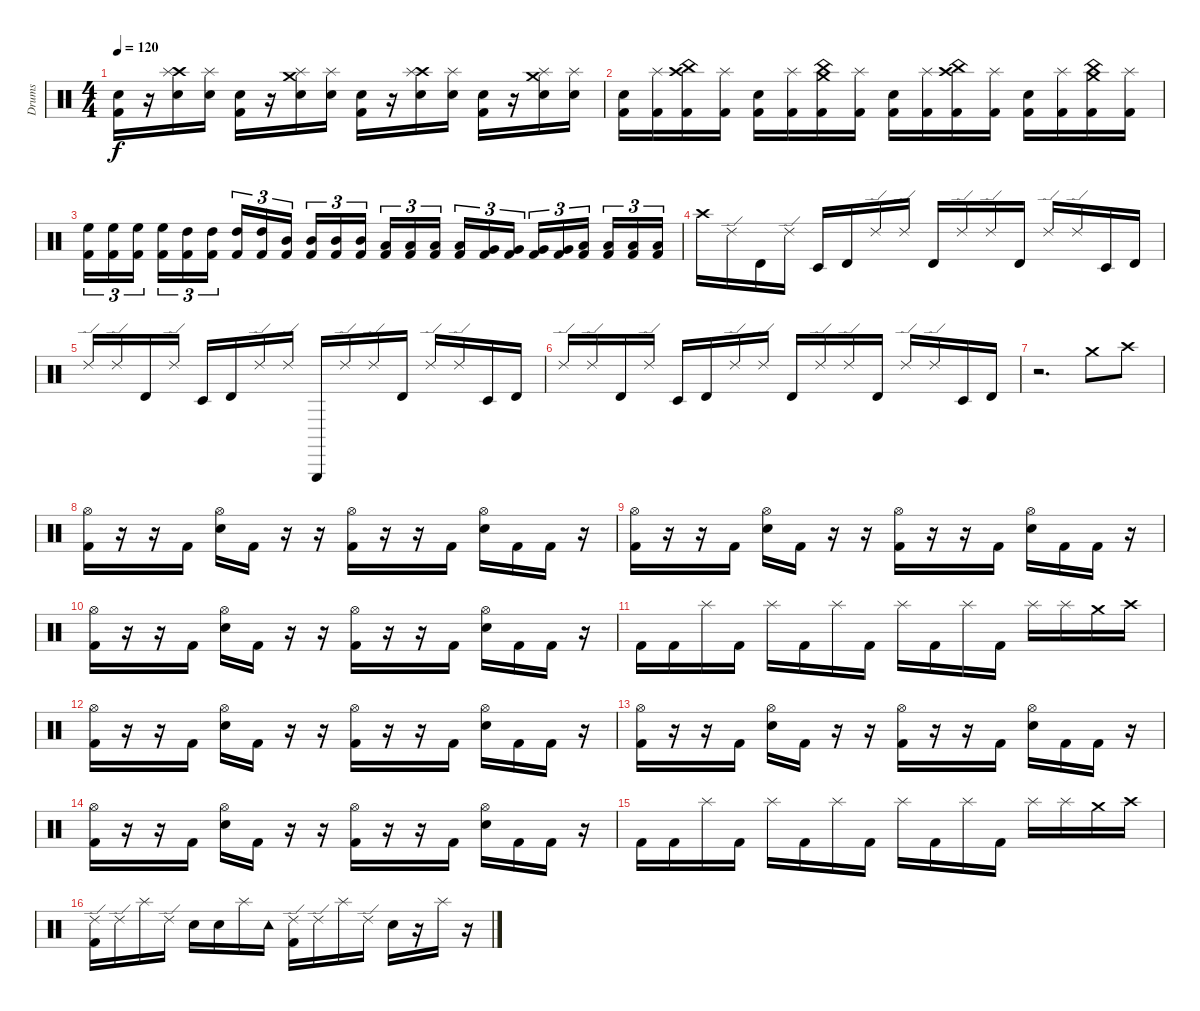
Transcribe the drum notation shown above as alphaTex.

\track ("Drums" "Drums") {instrument percussion}
\staff {score}
\articulation defaults
\ts (4 4)
\tempo 120
\clef neutral
\ks c
("Snare (hit) 2" "Kick (hit) 2").16{dy f} r.16 ("Crash high (hit)" "Splash (hit)" "Snare (hit) 2").16 ("Splash (hit)" "Snare (hit) 2").16 ("Snare (hit) 2" "Kick (hit) 2").16 r.16 ("Crash medium (hit)" "Splash (hit)" "Snare (hit) 2").16 ("Splash (hit)" "Snare (hit) 2").16 ("Snare (hit) 2" "Kick (hit) 2").16 r.16 ("Crash high (hit)" "Splash (hit)" "Snare (hit) 2").16 ("Splash (hit)" "Snare (hit) 2").16 ("Snare (hit) 2" "Kick (hit) 2").16 r.16 ("Crash medium (hit)" "Splash (hit)" "Snare (hit) 2").16 ("Splash (hit)" "Snare (hit) 2").16 |
("Snare (hit) 2" "Kick (hit) 2").16 ("Splash (hit)" "Kick (hit) 2").16 ("Crash high (hit)" "China (hit)" "Kick (hit) 2").16 ("Splash (hit)" "Kick (hit) 2").16 ("Snare (hit) 2" "Kick (hit) 2").16 ("Splash (hit)" "Kick (hit) 2").16 ("Crash medium (hit)" "China (hit)" "Kick (hit) 2").16 ("Splash (hit)" "Kick (hit) 2").16 ("Snare (hit) 2" "Kick (hit) 2").16 ("Splash (hit)" "Kick (hit) 2").16 ("Crash high (hit)" "China (hit)" "Kick (hit) 2").16 ("Splash (hit)" "Kick (hit) 2").16 ("Snare (hit) 2" "Kick (hit) 2").16 ("Splash (hit)" "Kick (hit) 2").16 ("Crash medium (hit)" "China (hit)" "Kick (hit) 2").16 ("Splash (hit)" "Kick (hit) 2").16 |
("High Floor Tom (hit)" "Kick (hit) 2").16{tu (3 2)} ("High Floor Tom (hit)" "Kick (hit) 2").16{tu (3 2)} ("High Floor Tom (hit)" "Kick (hit) 2").16{tu (3 2)} ("High Floor Tom (hit)" "Kick (hit) 2").16{tu (3 2)} ("High Tom (hit)" "Kick (hit) 2").16{tu (3 2)} ("High Tom (hit)" "Kick (hit) 2").16{tu (3 2)} ("High Tom (hit)" "Kick (hit) 2").16{tu (3 2)} ("High Tom (hit)" "Kick (hit) 2").16{tu (3 2)} ("Mid Tom (hit)" "Kick (hit) 2").16{tu (3 2)} ("Mid Tom (hit)" "Kick (hit) 2").16{tu (3 2)} ("Mid Tom (hit)" "Kick (hit) 2").16{tu (3 2)} ("Mid Tom (hit)" "Kick (hit) 2").16{tu (3 2)} ("Low Tom (hit)" "Kick (hit) 2").16{tu (3 2)} ("Low Tom (hit)" "Kick (hit) 2").16{tu (3 2)} ("Low Tom (hit)" "Kick (hit) 2").16{tu (3 2)} ("Low Tom (hit)" "Kick (hit) 2").16{tu (3 2)} ("Very Low Tom (hit)" "Kick (hit) 2").16{tu (3 2)} ("Very Low Tom (hit)" "Kick (hit) 2").16{tu (3 2)} ("Very Low Tom (hit)" "Kick (hit) 2").16{tu (3 2)} ("Very Low Tom (hit)" "Kick (hit) 2").16{tu (3 2)} ("Low Floor Tom (hit)" "Kick (hit) 2").16{tu (3 2)} ("Low Floor Tom (hit)" "Kick (hit) 2").16{tu (3 2)} ("Low Floor Tom (hit)" "Kick (hit) 2").16{tu (3 2)} ("Low Floor Tom (hit)" "Kick (hit) 2").16{tu (3 2)} |
"Crash high (hit)".16 "Ride (edge) 2".16 "Timbale high (hit)".16 "Ride (edge) 2".16 "Timbale low (hit)".16 "Timbale high (hit)".16 "Ride (edge) 2".16 "Ride (edge) 2".16 "Timbale high (hit)".16 "Ride (edge) 2".16 "Ride (edge) 2".16 "Timbale high (hit)".16 "Ride (edge) 2".16 "Ride (edge) 2".16 "Timbale low (hit)".16 "Timbale high (hit)".16 |
"Ride (edge) 2".16 "Ride (edge) 2".16 "Timbale high (hit)".16 "Ride (edge) 2".16 "Timbale low (hit)".16 "Timbale high (hit)".16 "Ride (edge) 2".16 "Ride (edge) 2".16 "Triangle (hit)".16 "Ride (edge) 2".16 "Ride (edge) 2".16 "Timbale high (hit)".16 "Ride (edge) 2".16 "Ride (edge) 2".16 "Timbale low (hit)".16 "Timbale high (hit)".16 |
"Ride (edge) 2".16 "Ride (edge) 2".16 "Timbale high (hit)".16 "Ride (edge) 2".16 "Timbale low (hit)".16 "Timbale high (hit)".16 "Ride (edge) 2".16 "Ride (edge) 2".16 "Timbale high (hit)".16 "Ride (edge) 2".16 "Ride (edge) 2".16 "Timbale high (hit)".16 "Ride (edge) 2".16 "Ride (edge) 2".16 "Timbale low (hit)".16 "Timbale high (hit)".16 |
r.2{d} "Crash medium (hit)".8 "Crash high (hit)".8 |
("Hi-Hat (open)" "Kick (hit) 2").16 r.16 r.16 "Kick (hit) 2".16 ("Hi-Hat (open)" "Snare (hit) 2").16 "Kick (hit) 2".16 r.16 r.16 ("Hi-Hat (open)" "Kick (hit) 2").16 r.16 r.16 "Kick (hit) 2".16 ("Hi-Hat (open)" "Snare (hit) 2").16 "Kick (hit) 2".16 "Kick (hit) 2".16 r.16 |
("Hi-Hat (open)" "Kick (hit) 2").16 r.16 r.16 "Kick (hit) 2".16 ("Hi-Hat (open)" "Snare (hit) 2").16 "Kick (hit) 2".16 r.16 r.16 ("Hi-Hat (open)" "Kick (hit) 2").16 r.16 r.16 "Kick (hit) 2".16 ("Hi-Hat (open)" "Snare (hit) 2").16 "Kick (hit) 2".16 "Kick (hit) 2".16 r.16 |
("Hi-Hat (open)" "Kick (hit) 2").16 r.16 r.16 "Kick (hit) 2".16 ("Hi-Hat (open)" "Snare (hit) 2").16 "Kick (hit) 2".16 r.16 r.16 ("Hi-Hat (open)" "Kick (hit) 2").16 r.16 r.16 "Kick (hit) 2".16 ("Hi-Hat (open)" "Snare (hit) 2").16 "Kick (hit) 2".16 "Kick (hit) 2".16 r.16 |
"Kick (hit) 2".16 "Kick (hit) 2".16 "Splash (hit)".16 "Kick (hit) 2".16 "Splash (hit)".16 "Kick (hit) 2".16 "Splash (hit)".16 "Kick (hit) 2".16 "Splash (hit)".16 "Kick (hit) 2".16 "Splash (hit)".16 "Kick (hit) 2".16 "Splash (hit)".16 "Splash (hit)".16 "Crash medium (hit)".16 "Crash high (hit)".16 |
("Hi-Hat (open)" "Kick (hit) 2").16 r.16 r.16 "Kick (hit) 2".16 ("Hi-Hat (open)" "Snare (hit) 2").16 "Kick (hit) 2".16 r.16 r.16 ("Hi-Hat (open)" "Kick (hit) 2").16 r.16 r.16 "Kick (hit) 2".16 ("Hi-Hat (open)" "Snare (hit) 2").16 "Kick (hit) 2".16 "Kick (hit) 2".16 r.16 |
("Hi-Hat (open)" "Kick (hit) 2").16 r.16 r.16 "Kick (hit) 2".16 ("Hi-Hat (open)" "Snare (hit) 2").16 "Kick (hit) 2".16 r.16 r.16 ("Hi-Hat (open)" "Kick (hit) 2").16 r.16 r.16 "Kick (hit) 2".16 ("Hi-Hat (open)" "Snare (hit) 2").16 "Kick (hit) 2".16 "Kick (hit) 2".16 r.16 |
("Hi-Hat (open)" "Kick (hit) 2").16 r.16 r.16 "Kick (hit) 2".16 ("Hi-Hat (open)" "Snare (hit) 2").16 "Kick (hit) 2".16 r.16 r.16 ("Hi-Hat (open)" "Kick (hit) 2").16 r.16 r.16 "Kick (hit) 2".16 ("Hi-Hat (open)" "Snare (hit) 2").16 "Kick (hit) 2".16 "Kick (hit) 2".16 r.16 |
"Kick (hit) 2".16 "Kick (hit) 2".16 "Splash (hit)".16 "Kick (hit) 2".16 "Splash (hit)".16 "Kick (hit) 2".16 "Splash (hit)".16 "Kick (hit) 2".16 "Splash (hit)".16 "Kick (hit) 2".16 "Splash (hit)".16 "Kick (hit) 2".16 "Splash (hit)".16 "Splash (hit)".16 "Crash medium (hit)".16 "Crash high (hit)".16 |
("Ride (edge) 2" "Kick (hit) 2").16 "Ride (edge) 2".16 "Splash (hit)".16 "Ride (edge) 2".16 "Snare (hit) 2".16 "Snare (hit) 2".16 "Splash (hit)".16 "Tambourine (hit)".16 ("Ride (edge) 2" "Kick (hit) 2").16 "Ride (edge) 2".16 "Splash (hit)".16 "Ride (edge) 2".16 "Snare (hit) 2".16 r.16 "Splash (hit)".16 r.16
